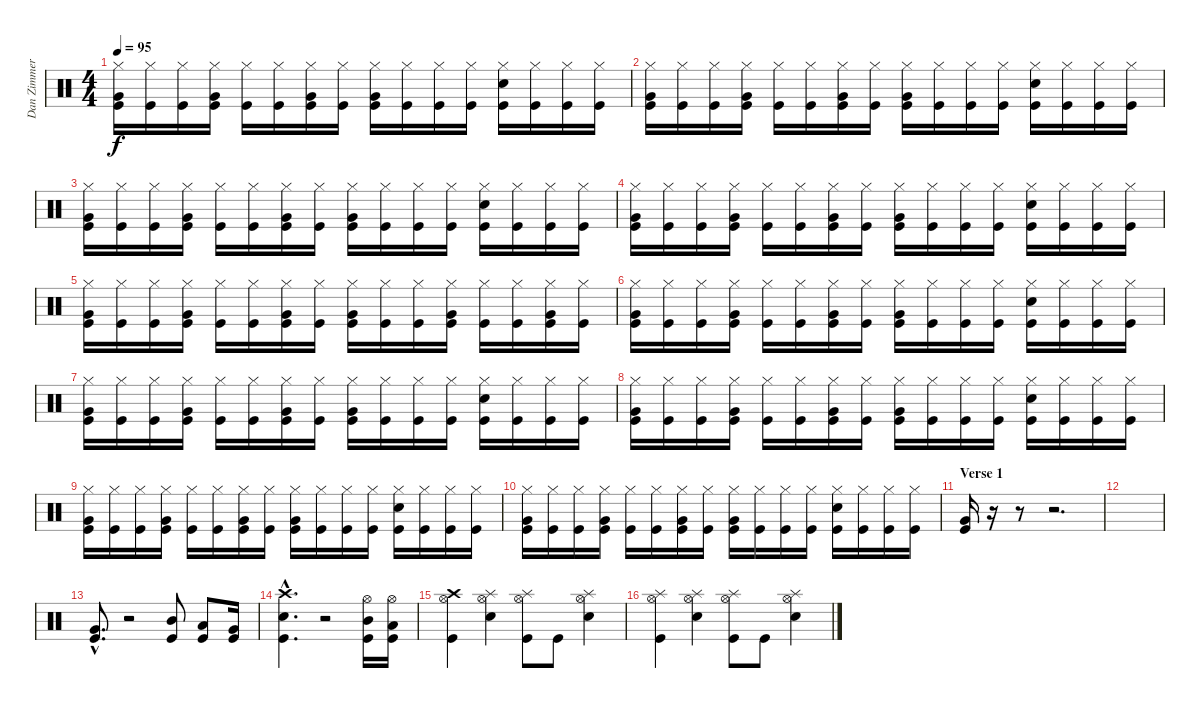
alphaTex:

\track ("Dan Zimmermann [drums]" "Dan Zimmer") {instrument percussion}
\staff {score}
\articulation defaults
\ts (4 4)
\tempo 95
\clef neutral
\ks c
("Hi-Hat (closed)" "Very Low Tom (hit)" "Kick (hit)").16{dy f} ("Hi-Hat (closed)" "Kick (hit)").16 ("Hi-Hat (closed)" "Kick (hit)").16 ("Hi-Hat (closed)" "Very Low Tom (hit)" "Kick (hit)").16 ("Hi-Hat (closed)" "Kick (hit)").16 ("Hi-Hat (closed)" "Kick (hit)").16 ("Hi-Hat (closed)" "Very Low Tom (hit)" "Kick (hit)").16 ("Hi-Hat (closed)" "Kick (hit)").16 ("Hi-Hat (closed)" "Very Low Tom (hit)" "Kick (hit)").16 ("Hi-Hat (closed)" "Kick (hit)").16 ("Hi-Hat (closed)" "Kick (hit)").16 ("Hi-Hat (closed)" "Kick (hit)").16 ("Hi-Hat (closed)" "Snare (hit) 2" "Kick (hit)").16 ("Hi-Hat (closed)" "Kick (hit)").16 ("Hi-Hat (closed)" "Kick (hit)").16 ("Hi-Hat (closed)" "Kick (hit)").16 |
("Hi-Hat (closed)" "Very Low Tom (hit)" "Kick (hit)").16 ("Hi-Hat (closed)" "Kick (hit)").16 ("Hi-Hat (closed)" "Kick (hit)").16 ("Hi-Hat (closed)" "Very Low Tom (hit)" "Kick (hit)").16 ("Hi-Hat (closed)" "Kick (hit)").16 ("Hi-Hat (closed)" "Kick (hit)").16 ("Hi-Hat (closed)" "Very Low Tom (hit)" "Kick (hit)").16 ("Hi-Hat (closed)" "Kick (hit)").16 ("Hi-Hat (closed)" "Very Low Tom (hit)" "Kick (hit)").16 ("Hi-Hat (closed)" "Kick (hit)").16 ("Hi-Hat (closed)" "Kick (hit)").16 ("Hi-Hat (closed)" "Kick (hit)").16 ("Hi-Hat (closed)" "Snare (hit) 2" "Kick (hit)").16 ("Hi-Hat (closed)" "Kick (hit)").16 ("Hi-Hat (closed)" "Kick (hit)").16 ("Hi-Hat (closed)" "Kick (hit)").16 |
("Hi-Hat (closed)" "Very Low Tom (hit)" "Kick (hit)").16 ("Hi-Hat (closed)" "Kick (hit)").16 ("Hi-Hat (closed)" "Kick (hit)").16 ("Hi-Hat (closed)" "Very Low Tom (hit)" "Kick (hit)").16 ("Hi-Hat (closed)" "Kick (hit)").16 ("Hi-Hat (closed)" "Kick (hit)").16 ("Hi-Hat (closed)" "Very Low Tom (hit)" "Kick (hit)").16 ("Hi-Hat (closed)" "Kick (hit)").16 ("Hi-Hat (closed)" "Very Low Tom (hit)" "Kick (hit)").16 ("Hi-Hat (closed)" "Kick (hit)").16 ("Hi-Hat (closed)" "Kick (hit)").16 ("Hi-Hat (closed)" "Kick (hit)").16 ("Hi-Hat (closed)" "Snare (hit) 2" "Kick (hit)").16 ("Hi-Hat (closed)" "Kick (hit)").16 ("Hi-Hat (closed)" "Kick (hit)").16 ("Hi-Hat (closed)" "Kick (hit)").16 |
("Hi-Hat (closed)" "Very Low Tom (hit)" "Kick (hit)").16 ("Hi-Hat (closed)" "Kick (hit)").16 ("Hi-Hat (closed)" "Kick (hit)").16 ("Hi-Hat (closed)" "Very Low Tom (hit)" "Kick (hit)").16 ("Hi-Hat (closed)" "Kick (hit)").16 ("Hi-Hat (closed)" "Kick (hit)").16 ("Hi-Hat (closed)" "Very Low Tom (hit)" "Kick (hit)").16 ("Hi-Hat (closed)" "Kick (hit)").16 ("Hi-Hat (closed)" "Very Low Tom (hit)" "Kick (hit)").16 ("Hi-Hat (closed)" "Kick (hit)").16 ("Hi-Hat (closed)" "Kick (hit)").16 ("Hi-Hat (closed)" "Kick (hit)").16 ("Hi-Hat (closed)" "Snare (hit) 2" "Kick (hit)").16 ("Hi-Hat (closed)" "Kick (hit)").16 ("Hi-Hat (closed)" "Kick (hit)").16 ("Hi-Hat (closed)" "Kick (hit)").16 |
("Hi-Hat (closed)" "Very Low Tom (hit)" "Kick (hit)").16 ("Hi-Hat (closed)" "Kick (hit)").16 ("Hi-Hat (closed)" "Kick (hit)").16 ("Hi-Hat (closed)" "Very Low Tom (hit)" "Kick (hit)").16 ("Hi-Hat (closed)" "Kick (hit)").16 ("Hi-Hat (closed)" "Kick (hit)").16 ("Hi-Hat (closed)" "Very Low Tom (hit)" "Kick (hit)").16 ("Hi-Hat (closed)" "Kick (hit)").16 ("Hi-Hat (closed)" "Very Low Tom (hit)" "Kick (hit)").16 ("Hi-Hat (closed)" "Kick (hit)").16 ("Hi-Hat (closed)" "Kick (hit)").16 ("Hi-Hat (closed)" "Very Low Tom (hit)" "Kick (hit)").16 ("Hi-Hat (closed)" "Kick (hit)").16 ("Hi-Hat (closed)" "Kick (hit)").16 ("Hi-Hat (closed)" "Very Low Tom (hit)" "Kick (hit)").16 ("Hi-Hat (closed)" "Kick (hit)").16 |
("Hi-Hat (closed)" "Very Low Tom (hit)" "Kick (hit)").16 ("Hi-Hat (closed)" "Kick (hit)").16 ("Hi-Hat (closed)" "Kick (hit)").16 ("Hi-Hat (closed)" "Very Low Tom (hit)" "Kick (hit)").16 ("Hi-Hat (closed)" "Kick (hit)").16 ("Hi-Hat (closed)" "Kick (hit)").16 ("Hi-Hat (closed)" "Very Low Tom (hit)" "Kick (hit)").16 ("Hi-Hat (closed)" "Kick (hit)").16 ("Hi-Hat (closed)" "Very Low Tom (hit)" "Kick (hit)").16 ("Hi-Hat (closed)" "Kick (hit)").16 ("Hi-Hat (closed)" "Kick (hit)").16 ("Hi-Hat (closed)" "Kick (hit)").16 ("Hi-Hat (closed)" "Snare (hit) 2" "Kick (hit)").16 ("Hi-Hat (closed)" "Kick (hit)").16 ("Hi-Hat (closed)" "Kick (hit)").16 ("Hi-Hat (closed)" "Kick (hit)").16 |
("Hi-Hat (closed)" "Very Low Tom (hit)" "Kick (hit)").16 ("Hi-Hat (closed)" "Kick (hit)").16 ("Hi-Hat (closed)" "Kick (hit)").16 ("Hi-Hat (closed)" "Very Low Tom (hit)" "Kick (hit)").16 ("Hi-Hat (closed)" "Kick (hit)").16 ("Hi-Hat (closed)" "Kick (hit)").16 ("Hi-Hat (closed)" "Very Low Tom (hit)" "Kick (hit)").16 ("Hi-Hat (closed)" "Kick (hit)").16 ("Hi-Hat (closed)" "Very Low Tom (hit)" "Kick (hit)").16 ("Hi-Hat (closed)" "Kick (hit)").16 ("Hi-Hat (closed)" "Kick (hit)").16 ("Hi-Hat (closed)" "Kick (hit)").16 ("Hi-Hat (closed)" "Snare (hit) 2" "Kick (hit)").16 ("Hi-Hat (closed)" "Kick (hit)").16 ("Hi-Hat (closed)" "Kick (hit)").16 ("Hi-Hat (closed)" "Kick (hit)").16 |
("Hi-Hat (closed)" "Very Low Tom (hit)" "Kick (hit)").16 ("Hi-Hat (closed)" "Kick (hit)").16 ("Hi-Hat (closed)" "Kick (hit)").16 ("Hi-Hat (closed)" "Very Low Tom (hit)" "Kick (hit)").16 ("Hi-Hat (closed)" "Kick (hit)").16 ("Hi-Hat (closed)" "Kick (hit)").16 ("Hi-Hat (closed)" "Very Low Tom (hit)" "Kick (hit)").16 ("Hi-Hat (closed)" "Kick (hit)").16 ("Hi-Hat (closed)" "Very Low Tom (hit)" "Kick (hit)").16 ("Hi-Hat (closed)" "Kick (hit)").16 ("Hi-Hat (closed)" "Kick (hit)").16 ("Hi-Hat (closed)" "Kick (hit)").16 ("Hi-Hat (closed)" "Snare (hit) 2" "Kick (hit)").16 ("Hi-Hat (closed)" "Kick (hit)").16 ("Hi-Hat (closed)" "Kick (hit)").16 ("Hi-Hat (closed)" "Kick (hit)").16 |
("Hi-Hat (closed)" "Very Low Tom (hit)" "Kick (hit)").16 ("Hi-Hat (closed)" "Kick (hit)").16 ("Hi-Hat (closed)" "Kick (hit)").16 ("Hi-Hat (closed)" "Very Low Tom (hit)" "Kick (hit)").16 ("Hi-Hat (closed)" "Kick (hit)").16 ("Hi-Hat (closed)" "Kick (hit)").16 ("Hi-Hat (closed)" "Very Low Tom (hit)" "Kick (hit)").16 ("Hi-Hat (closed)" "Kick (hit)").16 ("Hi-Hat (closed)" "Very Low Tom (hit)" "Kick (hit)").16 ("Hi-Hat (closed)" "Kick (hit)").16 ("Hi-Hat (closed)" "Kick (hit)").16 ("Hi-Hat (closed)" "Kick (hit)").16 ("Hi-Hat (closed)" "Snare (hit) 2" "Kick (hit)").16 ("Hi-Hat (closed)" "Kick (hit)").16 ("Hi-Hat (closed)" "Kick (hit)").16 ("Hi-Hat (closed)" "Kick (hit)").16 |
("Hi-Hat (closed)" "Very Low Tom (hit)" "Kick (hit)").16 ("Hi-Hat (closed)" "Kick (hit)").16 ("Hi-Hat (closed)" "Kick (hit)").16 ("Hi-Hat (closed)" "Very Low Tom (hit)" "Kick (hit)").16 ("Hi-Hat (closed)" "Kick (hit)").16 ("Hi-Hat (closed)" "Kick (hit)").16 ("Hi-Hat (closed)" "Very Low Tom (hit)" "Kick (hit)").16 ("Hi-Hat (closed)" "Kick (hit)").16 ("Hi-Hat (closed)" "Very Low Tom (hit)" "Kick (hit)").16 ("Hi-Hat (closed)" "Kick (hit)").16 ("Hi-Hat (closed)" "Kick (hit)").16 ("Hi-Hat (closed)" "Kick (hit)").16 ("Hi-Hat (closed)" "Snare (hit) 2" "Kick (hit)").16 ("Hi-Hat (closed)" "Kick (hit)").16 ("Hi-Hat (closed)" "Kick (hit)").16 ("Hi-Hat (closed)" "Kick (hit)").16 |
\section ("" "Verse 1")
("Very Low Tom (hit)" "Kick (hit)").16 r.16 r.8 r.2{d} |
|
("Very Low Tom (hit)"{hac} "Kick (hit)"{hac}).8{d} r.2 ("Mid Tom (hit)" "Kick (hit)").8 ("Low Tom (hit)" "Kick (hit)").8 ("Very Low Tom (hit)" "Kick (hit)").16 |
("Crash high (hit)"{hac} "Snare (hit) 2"{hac} "Kick (hit)"{hac}).4{d} r.2 ("Hi-Hat (open)" "Mid Tom (hit)" "Kick (hit)").16 ("Hi-Hat (open)" "Low Tom (hit)" "Kick (hit)").16 |
("Hi-Hat (open)" "Crash high (hit)" "Kick (hit)").4 ("Hi-Hat (open)" "Splash (hit)" "Snare (hit) 2").4 ("Hi-Hat (open)" "Splash (hit)" "Kick (hit)").8 "Kick (hit)".8 ("Hi-Hat (open)" "Splash (hit)" "Snare (hit) 2").4 |
("Hi-Hat (open)" "Splash (hit)" "Kick (hit)").4 ("Hi-Hat (open)" "Splash (hit)" "Snare (hit) 2").4 ("Hi-Hat (open)" "Splash (hit)" "Kick (hit)").8 "Kick (hit)".8 ("Hi-Hat (open)" "Splash (hit)" "Snare (hit) 2").4
